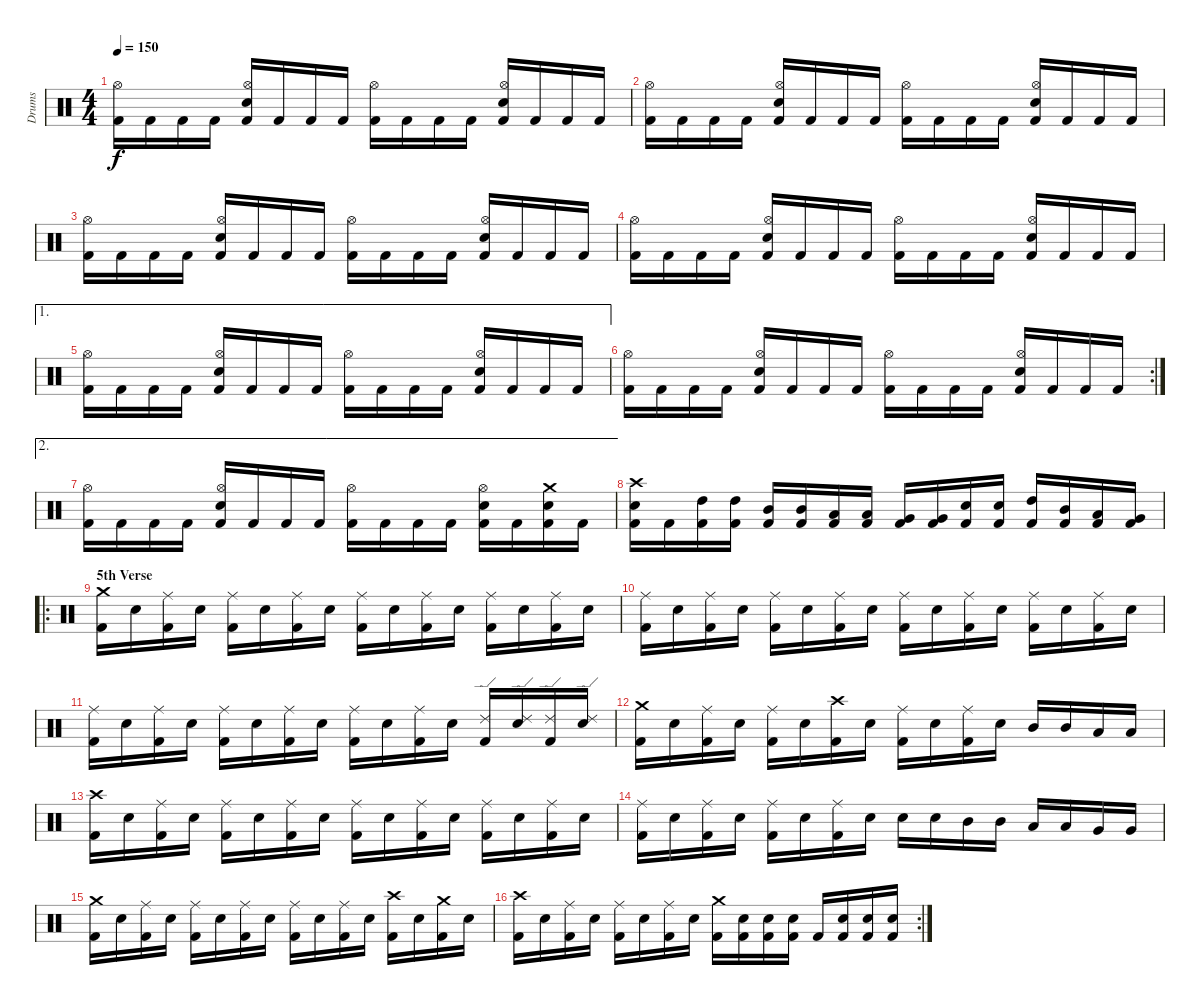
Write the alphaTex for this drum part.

\track ("Drums" "Drums") {instrument percussion}
\staff {score}
\articulation defaults
\ts (4 4)
\tempo 150
\clef neutral
\ks c
("Kick (hit) 2" "Hi-Hat (open)").16{dy f} "Kick (hit) 2".16 "Kick (hit) 2".16 "Kick (hit) 2".16 ("Kick (hit) 2" "Electric Snare (hit)" "Hi-Hat (open)").16 "Kick (hit) 2".16 "Kick (hit) 2".16 "Kick (hit) 2".16 ("Kick (hit) 2" "Hi-Hat (open)").16 "Kick (hit) 2".16 "Kick (hit) 2".16 "Kick (hit) 2".16 ("Kick (hit) 2" "Electric Snare (hit)" "Hi-Hat (open)").16 "Kick (hit) 2".16 "Kick (hit) 2".16 "Kick (hit) 2".16 |
("Kick (hit) 2" "Hi-Hat (open)").16 "Kick (hit) 2".16 "Kick (hit) 2".16 "Kick (hit) 2".16 ("Kick (hit) 2" "Electric Snare (hit)" "Hi-Hat (open)").16 "Kick (hit) 2".16 "Kick (hit) 2".16 "Kick (hit) 2".16 ("Kick (hit) 2" "Hi-Hat (open)").16 "Kick (hit) 2".16 "Kick (hit) 2".16 "Kick (hit) 2".16 ("Kick (hit) 2" "Electric Snare (hit)" "Hi-Hat (open)").16 "Kick (hit) 2".16 "Kick (hit) 2".16 "Kick (hit) 2".16 |
("Kick (hit) 2" "Hi-Hat (open)").16 "Kick (hit) 2".16 "Kick (hit) 2".16 "Kick (hit) 2".16 ("Kick (hit) 2" "Electric Snare (hit)" "Hi-Hat (open)").16 "Kick (hit) 2".16 "Kick (hit) 2".16 "Kick (hit) 2".16 ("Kick (hit) 2" "Hi-Hat (open)").16 "Kick (hit) 2".16 "Kick (hit) 2".16 "Kick (hit) 2".16 ("Kick (hit) 2" "Electric Snare (hit)" "Hi-Hat (open)").16 "Kick (hit) 2".16 "Kick (hit) 2".16 "Kick (hit) 2".16 |
("Kick (hit) 2" "Hi-Hat (open)").16 "Kick (hit) 2".16 "Kick (hit) 2".16 "Kick (hit) 2".16 ("Kick (hit) 2" "Electric Snare (hit)" "Hi-Hat (open)").16 "Kick (hit) 2".16 "Kick (hit) 2".16 "Kick (hit) 2".16 ("Kick (hit) 2" "Hi-Hat (open)").16 "Kick (hit) 2".16 "Kick (hit) 2".16 "Kick (hit) 2".16 ("Kick (hit) 2" "Electric Snare (hit)" "Hi-Hat (open)").16 "Kick (hit) 2".16 "Kick (hit) 2".16 "Kick (hit) 2".16 |
\ae 1
("Kick (hit) 2" "Hi-Hat (open)").16 "Kick (hit) 2".16 "Kick (hit) 2".16 "Kick (hit) 2".16 ("Kick (hit) 2" "Electric Snare (hit)" "Hi-Hat (open)").16 "Kick (hit) 2".16 "Kick (hit) 2".16 "Kick (hit) 2".16 ("Kick (hit) 2" "Hi-Hat (open)").16 "Kick (hit) 2".16 "Kick (hit) 2".16 "Kick (hit) 2".16 ("Kick (hit) 2" "Electric Snare (hit)" "Hi-Hat (open)").16 "Kick (hit) 2".16 "Kick (hit) 2".16 "Kick (hit) 2".16 |
\rc 2
("Kick (hit) 2" "Hi-Hat (open)").16 "Kick (hit) 2".16 "Kick (hit) 2".16 "Kick (hit) 2".16 ("Kick (hit) 2" "Electric Snare (hit)" "Hi-Hat (open)").16 "Kick (hit) 2".16 "Kick (hit) 2".16 "Kick (hit) 2".16 ("Kick (hit) 2" "Hi-Hat (open)").16 "Kick (hit) 2".16 "Kick (hit) 2".16 "Kick (hit) 2".16 ("Kick (hit) 2" "Electric Snare (hit)" "Hi-Hat (open)").16 "Kick (hit) 2".16 "Kick (hit) 2".16 "Kick (hit) 2".16 |
\ae 2
("Kick (hit) 2" "Hi-Hat (open)").16 "Kick (hit) 2".16 "Kick (hit) 2".16 "Kick (hit) 2".16 ("Kick (hit) 2" "Electric Snare (hit)" "Hi-Hat (open)").16 "Kick (hit) 2".16 "Kick (hit) 2".16 "Kick (hit) 2".16 ("Kick (hit) 2" "Hi-Hat (open)").16 "Kick (hit) 2".16 "Kick (hit) 2".16 "Kick (hit) 2".16 ("Kick (hit) 2" "Electric Snare (hit)" "Hi-Hat (open)").16 "Kick (hit) 2".16 ("Kick (hit) 2" "Electric Snare (hit)" "Crash medium (hit)").16 "Kick (hit) 2".16 |
("Kick (hit) 2" "Electric Snare (hit)" "Crash high (hit)").16 "Kick (hit) 2".16 ("Kick (hit) 2" "High Tom (hit)").16 ("Kick (hit) 2" "High Tom (hit)").16 ("Kick (hit) 2" "Mid Tom (hit)").16 ("Kick (hit) 2" "Mid Tom (hit)").16 ("Kick (hit) 2" "Low Tom (hit)").16 ("Kick (hit) 2" "Low Tom (hit)").16 ("Kick (hit) 2" "Very Low Tom (hit)").16 ("Kick (hit) 2" "Very Low Tom (hit)").16 ("Kick (hit) 2" "Electric Snare (hit)").16 ("Kick (hit) 2" "Electric Snare (hit)").16 ("Kick (hit) 2" "High Tom (hit)").16 ("Kick (hit) 2" "Mid Tom (hit)").16 ("Kick (hit) 2" "Low Tom (hit)").16 ("Kick (hit) 2" "Very Low Tom (hit)").16 |
\ro
\section ("" "5th Verse")
("Kick (hit) 2" "Crash medium (hit)").16 "Electric Snare (hit)".16 ("Kick (hit) 2" "Ride (middle)").16 "Electric Snare (hit)".16 ("Kick (hit) 2" "Ride (middle)").16 "Electric Snare (hit)".16 ("Kick (hit) 2" "Ride (middle)").16 "Electric Snare (hit)".16 ("Kick (hit) 2" "Ride (middle)").16 "Electric Snare (hit)".16 ("Kick (hit) 2" "Ride (middle)").16 "Electric Snare (hit)".16 ("Kick (hit) 2" "Ride (middle)").16 "Electric Snare (hit)".16 ("Kick (hit) 2" "Ride (middle)").16 "Electric Snare (hit)".16 |
("Kick (hit) 2" "Ride (middle)").16 "Electric Snare (hit)".16 ("Kick (hit) 2" "Ride (middle)").16 "Electric Snare (hit)".16 ("Kick (hit) 2" "Ride (middle)").16 "Electric Snare (hit)".16 ("Kick (hit) 2" "Ride (middle)").16 "Electric Snare (hit)".16 ("Kick (hit) 2" "Ride (middle)").16 "Electric Snare (hit)".16 ("Kick (hit) 2" "Ride (middle)").16 "Electric Snare (hit)".16 ("Kick (hit) 2" "Ride (middle)").16 "Electric Snare (hit)".16 ("Kick (hit) 2" "Ride (middle)").16 "Electric Snare (hit)".16 |
("Kick (hit) 2" "Ride (middle)").16 "Electric Snare (hit)".16 ("Kick (hit) 2" "Ride (middle)").16 "Electric Snare (hit)".16 ("Kick (hit) 2" "Ride (middle)").16 "Electric Snare (hit)".16 ("Kick (hit) 2" "Ride (middle)").16 "Electric Snare (hit)".16 ("Kick (hit) 2" "Ride (middle)").16 "Electric Snare (hit)".16 ("Kick (hit) 2" "Ride (middle)").16 "Electric Snare (hit)".16 ("Kick (hit) 2" "Ride (edge) 2").16 ("Electric Snare (hit)" "Ride (edge) 2").16 ("Kick (hit) 2" "Ride (edge) 2").16 ("Electric Snare (hit)" "Ride (edge) 2").16 |
("Kick (hit) 2" "Crash medium (hit)").16 "Electric Snare (hit)".16 ("Kick (hit) 2" "Ride (middle)").16 "Electric Snare (hit)".16 ("Kick (hit) 2" "Ride (middle)").16 "Electric Snare (hit)".16 ("Kick (hit) 2" "Crash high (hit)").16 "Electric Snare (hit)".16 ("Kick (hit) 2" "Ride (middle)").16 "Electric Snare (hit)".16 ("Kick (hit) 2" "Ride (middle)").16 "Electric Snare (hit)".16 "Mid Tom (hit)".16 "Mid Tom (hit)".16 "Low Tom (hit)".16 "Low Tom (hit)".16 |
("Kick (hit) 2" "Crash high (hit)").16 "Electric Snare (hit)".16 ("Kick (hit) 2" "Ride (middle)").16 "Electric Snare (hit)".16 ("Kick (hit) 2" "Ride (middle)").16 "Electric Snare (hit)".16 ("Kick (hit) 2" "Ride (middle)").16 "Electric Snare (hit)".16 ("Kick (hit) 2" "Ride (middle)").16 "Electric Snare (hit)".16 ("Kick (hit) 2" "Ride (middle)").16 "Electric Snare (hit)".16 ("Kick (hit) 2" "Ride (middle)").16 "Electric Snare (hit)".16 ("Kick (hit) 2" "Ride (middle)").16 "Electric Snare (hit)".16 |
("Kick (hit) 2" "Ride (middle)").16 "Electric Snare (hit)".16 ("Kick (hit) 2" "Ride (middle)").16 "Electric Snare (hit)".16 ("Kick (hit) 2" "Ride (middle)").16 "Electric Snare (hit)".16 ("Kick (hit) 2" "Ride (middle)").16 "Electric Snare (hit)".16 "Electric Snare (hit)".16 "Electric Snare (hit)".16 "Mid Tom (hit)".16 "Mid Tom (hit)".16 "Low Tom (hit)".16 "Low Tom (hit)".16 "Very Low Tom (hit)".16 "Very Low Tom (hit)".16 |
("Kick (hit) 2" "Crash medium (hit)").16 "Electric Snare (hit)".16 ("Kick (hit) 2" "Ride (middle)").16 "Electric Snare (hit)".16 ("Kick (hit) 2" "Ride (middle)").16 "Electric Snare (hit)".16 ("Kick (hit) 2" "Ride (middle)").16 "Electric Snare (hit)".16 ("Kick (hit) 2" "Ride (middle)").16 "Electric Snare (hit)".16 ("Kick (hit) 2" "Ride (middle)").16 "Electric Snare (hit)".16 ("Kick (hit) 2" "Crash high (hit)").16 "Electric Snare (hit)".16 ("Kick (hit) 2" "Crash medium (hit)").16 "Electric Snare (hit)".16 |
\rc 2
("Kick (hit) 2" "Crash high (hit)").16 "Electric Snare (hit)".16 ("Kick (hit) 2" "Ride (middle)").16 "Electric Snare (hit)".16 ("Kick (hit) 2" "Ride (middle)").16 "Electric Snare (hit)".16 ("Kick (hit) 2" "Ride (middle)").16 "Electric Snare (hit)".16 ("Kick (hit) 2" "Crash medium (hit)").16 ("Kick (hit) 2" "Electric Snare (hit)").16 ("Kick (hit) 2" "Electric Snare (hit)").16 ("Kick (hit) 2" "Electric Snare (hit)").16 "Kick (hit) 2".16 ("Kick (hit) 2" "Electric Snare (hit)").16 ("Kick (hit) 2" "Electric Snare (hit)").16 ("Kick (hit) 2" "Electric Snare (hit)").16
